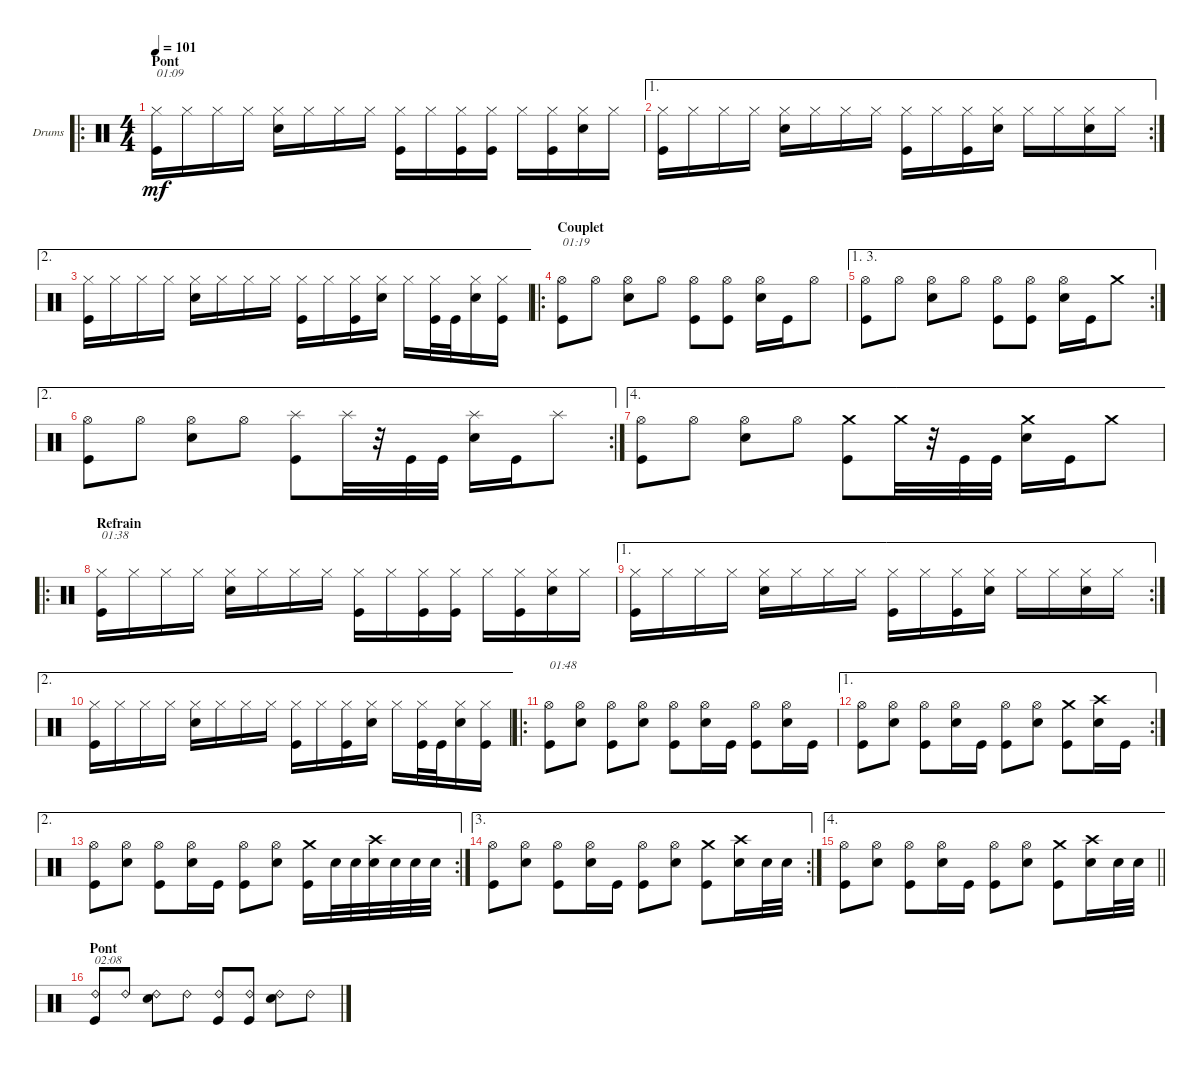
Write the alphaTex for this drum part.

\bracketExtendMode groupsimilarinstruments
\firstSystemTrackNameOrientation horizontal
\otherSystemsTrackNameOrientation horizontal
\track ("Drumkit" "Drums") {instrument percussion}
\staff {score}
\articulation defaults
\ro
\ts (4 4)
\section ("" "Pont")
\tempo 101
\clef neutral
\ks c
("Kick (hit)" "Hi-Hat (closed)").16{txt "01:09" dy mf} "Hi-Hat (closed)".16 "Hi-Hat (closed)".16 "Hi-Hat (closed)".16 ("Snare (hit) 2" "Hi-Hat (closed)").16 "Hi-Hat (closed)".16 "Hi-Hat (closed)".16 "Hi-Hat (closed)".16 ("Kick (hit)" "Hi-Hat (closed)").16 "Hi-Hat (closed)".16 ("Hi-Hat (closed)" "Kick (hit)").16 ("Hi-Hat (closed)" "Kick (hit)").16 "Hi-Hat (closed)".16 ("Hi-Hat (closed)" "Kick (hit)").16 ("Hi-Hat (closed)" "Snare (hit) 2").16 "Hi-Hat (closed)".16 |
\ae 1
\rc 2
("Kick (hit)" "Hi-Hat (closed)").16 "Hi-Hat (closed)".16 "Hi-Hat (closed)".16 "Hi-Hat (closed)".16 ("Snare (hit) 2" "Hi-Hat (closed)").16 "Hi-Hat (closed)".16 "Hi-Hat (closed)".16 "Hi-Hat (closed)".16 ("Kick (hit)" "Hi-Hat (closed)").16 "Hi-Hat (closed)".16 ("Hi-Hat (closed)" "Kick (hit)").16 ("Hi-Hat (closed)" "Snare (hit) 2").16 "Hi-Hat (closed)".16 "Hi-Hat (closed)".16 ("Hi-Hat (closed)" "Snare (hit) 2").16 "Hi-Hat (closed)".16 |
\ae 2
("Kick (hit)" "Hi-Hat (closed)").16 "Hi-Hat (closed)".16 "Hi-Hat (closed)".16 "Hi-Hat (closed)".16 ("Snare (hit) 2" "Hi-Hat (closed)").16 "Hi-Hat (closed)".16 "Hi-Hat (closed)".16 "Hi-Hat (closed)".16 ("Kick (hit)" "Hi-Hat (closed)").16 "Hi-Hat (closed)".16 ("Hi-Hat (closed)" "Kick (hit)").16 ("Hi-Hat (closed)" "Snare (hit) 2").16 "Hi-Hat (closed)".16 ("Hi-Hat (closed)" "Kick (hit)").32 "Kick (hit)".32 ("Hi-Hat (closed)" "Snare (hit) 2").16 ("Hi-Hat (closed)" "Kick (hit)").16 |
\ro
\section ("" "Couplet")
("Hi-Hat (open)" "Kick (hit)").8{txt "01:19"} "Hi-Hat (open)".8 ("Hi-Hat (open)" "Snare (hit) 2").8 "Hi-Hat (open)".8 ("Hi-Hat (open)" "Kick (hit)").8 ("Hi-Hat (open)" "Kick (hit)").8 ("Hi-Hat (open)" "Snare (hit) 2").16 "Kick (hit)".16 "Hi-Hat (open)".8 |
\ae (1 3)
\rc 2
("Hi-Hat (open)" "Kick (hit)").8 "Hi-Hat (open)".8 ("Hi-Hat (open)" "Snare (hit) 2").8 "Hi-Hat (open)".8 ("Hi-Hat (open)" "Kick (hit)").8 ("Hi-Hat (open)" "Kick (hit)").8 ("Hi-Hat (open)" "Snare (hit) 2").16 "Kick (hit)".16 "Crash medium (hit)".8 |
\ae 2
\rc 2
("Hi-Hat (open)" "Kick (hit)").8 "Hi-Hat (open)".8 ("Hi-Hat (open)" "Snare (hit) 2").8 "Hi-Hat (open)".8 ("Kick (hit)" "Splash (hit)").8 "Splash (hit)".32 r.32 "Kick (hit)".32 "Kick (hit)".32 ("Snare (hit) 2" "Splash (hit)").16 "Kick (hit)".16 "Splash (hit)".8 |
\ae 4
("Hi-Hat (open)" "Kick (hit)").8 "Hi-Hat (open)".8 ("Hi-Hat (open)" "Snare (hit) 2").8 "Hi-Hat (open)".8 ("Kick (hit)" "Crash medium (hit)").8 "Crash medium (hit)".32 r.32 "Kick (hit)".32 "Kick (hit)".32 ("Snare (hit) 2" "Crash medium (hit)").16 "Kick (hit)".16 "Crash medium (hit)".8 |
\ro
\section ("" "Refrain")
("Kick (hit)" "Hi-Hat (closed)").16{txt "01:38"} "Hi-Hat (closed)".16 "Hi-Hat (closed)".16 "Hi-Hat (closed)".16 ("Snare (hit) 2" "Hi-Hat (closed)").16 "Hi-Hat (closed)".16 "Hi-Hat (closed)".16 "Hi-Hat (closed)".16 ("Kick (hit)" "Hi-Hat (closed)").16 "Hi-Hat (closed)".16 ("Hi-Hat (closed)" "Kick (hit)").16 ("Hi-Hat (closed)" "Kick (hit)").16 "Hi-Hat (closed)".16 ("Hi-Hat (closed)" "Kick (hit)").16 ("Hi-Hat (closed)" "Snare (hit) 2").16 "Hi-Hat (closed)".16 |
\ae 1
\rc 2
("Kick (hit)" "Hi-Hat (closed)").16 "Hi-Hat (closed)".16 "Hi-Hat (closed)".16 "Hi-Hat (closed)".16 ("Snare (hit) 2" "Hi-Hat (closed)").16 "Hi-Hat (closed)".16 "Hi-Hat (closed)".16 "Hi-Hat (closed)".16 ("Kick (hit)" "Hi-Hat (closed)").16 "Hi-Hat (closed)".16 ("Hi-Hat (closed)" "Kick (hit)").16 ("Hi-Hat (closed)" "Snare (hit) 2").16 "Hi-Hat (closed)".16 "Hi-Hat (closed)".16 ("Hi-Hat (closed)" "Snare (hit) 2").16 "Hi-Hat (closed)".16 |
\ae 2
("Kick (hit)" "Hi-Hat (closed)").16 "Hi-Hat (closed)".16 "Hi-Hat (closed)".16 "Hi-Hat (closed)".16 ("Snare (hit) 2" "Hi-Hat (closed)").16 "Hi-Hat (closed)".16 "Hi-Hat (closed)".16 "Hi-Hat (closed)".16 ("Kick (hit)" "Hi-Hat (closed)").16 "Hi-Hat (closed)".16 ("Hi-Hat (closed)" "Kick (hit)").16 ("Hi-Hat (closed)" "Snare (hit) 2").16 "Hi-Hat (closed)".16 ("Hi-Hat (closed)" "Kick (hit)").32 "Kick (hit)".32 ("Hi-Hat (closed)" "Snare (hit) 2").16 ("Hi-Hat (closed)" "Kick (hit)").16 |
\ro
("Hi-Hat (open)" "Kick (hit)").8{txt "01:48"} ("Hi-Hat (open)" "Snare (hit) 2").8 ("Hi-Hat (open)" "Kick (hit)").8 ("Hi-Hat (open)" "Snare (hit) 2").8 ("Hi-Hat (open)" "Kick (hit)").8 ("Hi-Hat (open)" "Snare (hit) 2").16 "Kick (hit)".16 ("Hi-Hat (open)" "Kick (hit)").8 ("Hi-Hat (open)" "Snare (hit) 2").16 "Kick (hit)".16 |
\ae 1
\rc 2
("Hi-Hat (open)" "Kick (hit)").8 ("Hi-Hat (open)" "Snare (hit) 2").8 ("Hi-Hat (open)" "Kick (hit)").8 ("Hi-Hat (open)" "Snare (hit) 2").16 "Kick (hit)".16 ("Hi-Hat (open)" "Kick (hit)").8 ("Hi-Hat (open)" "Snare (hit) 2").8 ("Crash medium (hit)" "Kick (hit)").8 ("Crash high (hit)" "Snare (hit) 2").16 "Kick (hit)".16 |
\ae 2
\rc 2
("Hi-Hat (open)" "Kick (hit)").8 ("Hi-Hat (open)" "Snare (hit) 2").8 ("Hi-Hat (open)" "Kick (hit)").8 ("Hi-Hat (open)" "Snare (hit) 2").16 "Kick (hit)".16 ("Hi-Hat (open)" "Kick (hit)").8 ("Hi-Hat (open)" "Snare (hit) 2").8 ("Crash medium (hit)" "Kick (hit)").16 "Snare (hit) 2".32 "Snare (hit) 2".32 ("Crash high (hit)" "Snare (hit) 2").32 "Snare (hit) 2".32 "Snare (hit) 2".32 "Snare (hit) 2".32 |
\ae 3
\rc 2
("Hi-Hat (open)" "Kick (hit)").8 ("Hi-Hat (open)" "Snare (hit) 2").8 ("Hi-Hat (open)" "Kick (hit)").8 ("Hi-Hat (open)" "Snare (hit) 2").16 "Kick (hit)".16 ("Hi-Hat (open)" "Kick (hit)").8 ("Hi-Hat (open)" "Snare (hit) 2").8 ("Crash medium (hit)" "Kick (hit)").8 ("Crash high (hit)" "Snare (hit) 2").16 "Snare (hit) 2".32 "Snare (hit) 2".32 |
\ae 4
\barLineRight lightlight
("Hi-Hat (open)" "Kick (hit)").8 ("Hi-Hat (open)" "Snare (hit) 2").8 ("Hi-Hat (open)" "Kick (hit)").8 ("Hi-Hat (open)" "Snare (hit) 2").16 "Kick (hit)".16 ("Hi-Hat (open)" "Kick (hit)").8 ("Hi-Hat (open)" "Snare (hit) 2").8 ("Crash medium (hit)" "Kick (hit)").8 ("Crash high (hit)" "Snare (hit) 2").16 "Snare (hit) 2".32 "Snare (hit) 2".32 |
\section ("" "Pont")
("Kick (hit)" "Ride (bell) 2").8{txt "02:08"} "Ride (bell) 2".8 ("Snare (hit) 2" "Ride (bell) 2").8 "Ride (bell) 2".8 ("Kick (hit)" "Ride (bell) 2").8 ("Ride (bell) 2" "Kick (hit)").8 ("Snare (hit) 2" "Ride (bell) 2").8 "Ride (bell) 2".8
